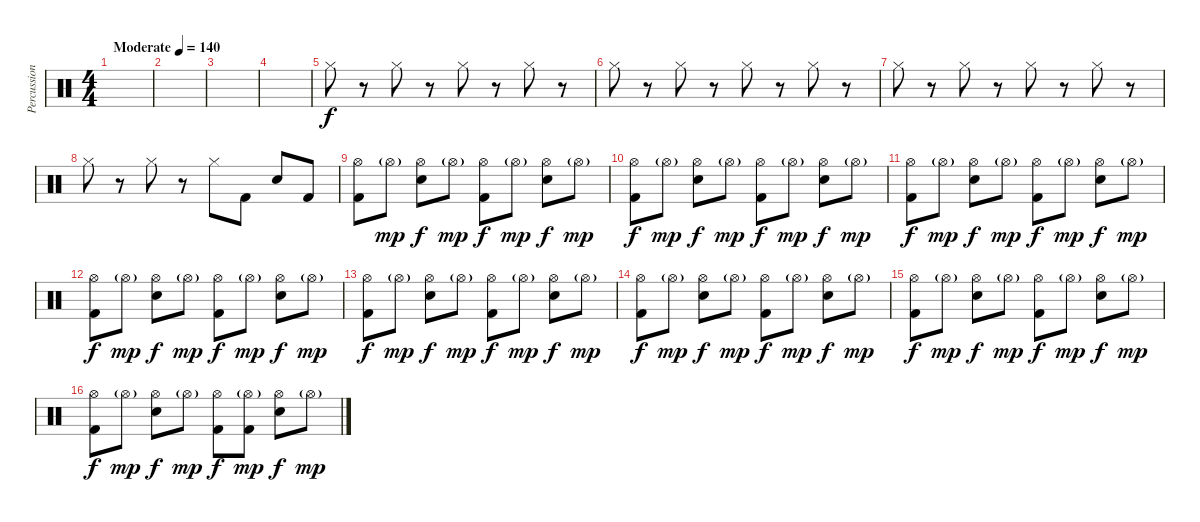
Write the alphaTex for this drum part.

\track ("Percussion" "Percussion") {instrument percussion}
\staff {score}
\articulation defaults
\ts (4 4)
\tempo (140 "Moderate")
\clef neutral
\ks c
|
|
|
|
"Hi-Hat (closed)".8 r.8 "Hi-Hat (closed)".8 r.8 "Hi-Hat (closed)".8 r.8 "Hi-Hat (closed)".8 r.8 |
"Hi-Hat (closed)".8 r.8 "Hi-Hat (closed)".8 r.8 "Hi-Hat (closed)".8 r.8 "Hi-Hat (closed)".8 r.8 |
"Hi-Hat (closed)".8 r.8 "Hi-Hat (closed)".8 r.8 "Hi-Hat (closed)".8 r.8 "Hi-Hat (closed)".8 r.8 |
"Hi-Hat (closed)".8 r.8 "Hi-Hat (closed)".8 r.8 "Hi-Hat (closed)".8 "Kick (hit) 2".8 "Snare (hit) 2".8 "Kick (hit) 2".8 |
("Hi-Hat (open)" "Kick (hit) 2").8 "Hi-Hat (open)"{g}.8{dy mp} ("Hi-Hat (open)" "Snare (hit) 2").8{dy f} "Hi-Hat (open)"{g}.8{dy mp} ("Hi-Hat (open)" "Kick (hit) 2").8{dy f} "Hi-Hat (open)"{g}.8{dy mp} ("Hi-Hat (open)" "Snare (hit) 2").8{dy f} "Hi-Hat (open)"{g}.8{dy mp} |
("Hi-Hat (open)" "Kick (hit) 2").8{dy f} "Hi-Hat (open)"{g}.8{dy mp} ("Hi-Hat (open)" "Snare (hit) 2").8{dy f} "Hi-Hat (open)"{g}.8{dy mp} ("Hi-Hat (open)" "Kick (hit) 2").8{dy f} "Hi-Hat (open)"{g}.8{dy mp} ("Hi-Hat (open)" "Snare (hit) 2").8{dy f} "Hi-Hat (open)"{g}.8{dy mp} |
("Hi-Hat (open)" "Kick (hit) 2").8{dy f} "Hi-Hat (open)"{g}.8{dy mp} ("Hi-Hat (open)" "Snare (hit) 2").8{dy f} "Hi-Hat (open)"{g}.8{dy mp} ("Hi-Hat (open)" "Kick (hit) 2").8{dy f} "Hi-Hat (open)"{g}.8{dy mp} ("Hi-Hat (open)" "Snare (hit) 2").8{dy f} "Hi-Hat (open)"{g}.8{dy mp} |
("Hi-Hat (open)" "Kick (hit) 2").8{dy f} "Hi-Hat (open)"{g}.8{dy mp} ("Hi-Hat (open)" "Snare (hit) 2").8{dy f} "Hi-Hat (open)"{g}.8{dy mp} ("Hi-Hat (open)" "Kick (hit) 2").8{dy f} "Hi-Hat (open)"{g}.8{dy mp} ("Hi-Hat (open)" "Snare (hit) 2").8{dy f} "Hi-Hat (open)"{g}.8{dy mp} |
("Hi-Hat (open)" "Kick (hit) 2").8{dy f} "Hi-Hat (open)"{g}.8{dy mp} ("Hi-Hat (open)" "Snare (hit) 2").8{dy f} "Hi-Hat (open)"{g}.8{dy mp} ("Hi-Hat (open)" "Kick (hit) 2").8{dy f} "Hi-Hat (open)"{g}.8{dy mp} ("Hi-Hat (open)" "Snare (hit) 2").8{dy f} "Hi-Hat (open)"{g}.8{dy mp} |
("Hi-Hat (open)" "Kick (hit) 2").8{dy f} "Hi-Hat (open)"{g}.8{dy mp} ("Hi-Hat (open)" "Snare (hit) 2").8{dy f} "Hi-Hat (open)"{g}.8{dy mp} ("Hi-Hat (open)" "Kick (hit) 2").8{dy f} "Hi-Hat (open)"{g}.8{dy mp} ("Hi-Hat (open)" "Snare (hit) 2").8{dy f} "Hi-Hat (open)"{g}.8{dy mp} |
("Hi-Hat (open)" "Kick (hit) 2").8{dy f} "Hi-Hat (open)"{g}.8{dy mp} ("Hi-Hat (open)" "Snare (hit) 2").8{dy f} "Hi-Hat (open)"{g}.8{dy mp} ("Hi-Hat (open)" "Kick (hit) 2").8{dy f} "Hi-Hat (open)"{g}.8{dy mp} ("Hi-Hat (open)" "Snare (hit) 2").8{dy f} "Hi-Hat (open)"{g}.8{dy mp} |
("Hi-Hat (open)" "Kick (hit) 2").8{dy f} "Hi-Hat (open)"{g}.8{dy mp} ("Hi-Hat (open)" "Snare (hit) 2").8{dy f} "Hi-Hat (open)"{g}.8{dy mp} ("Hi-Hat (open)" "Kick (hit) 2").8{dy f} ("Hi-Hat (open)"{g} "Kick (hit) 2").8{dy mp} ("Hi-Hat (open)" "Snare (hit) 2").8{dy f} "Hi-Hat (open)"{g}.8{dy mp}
